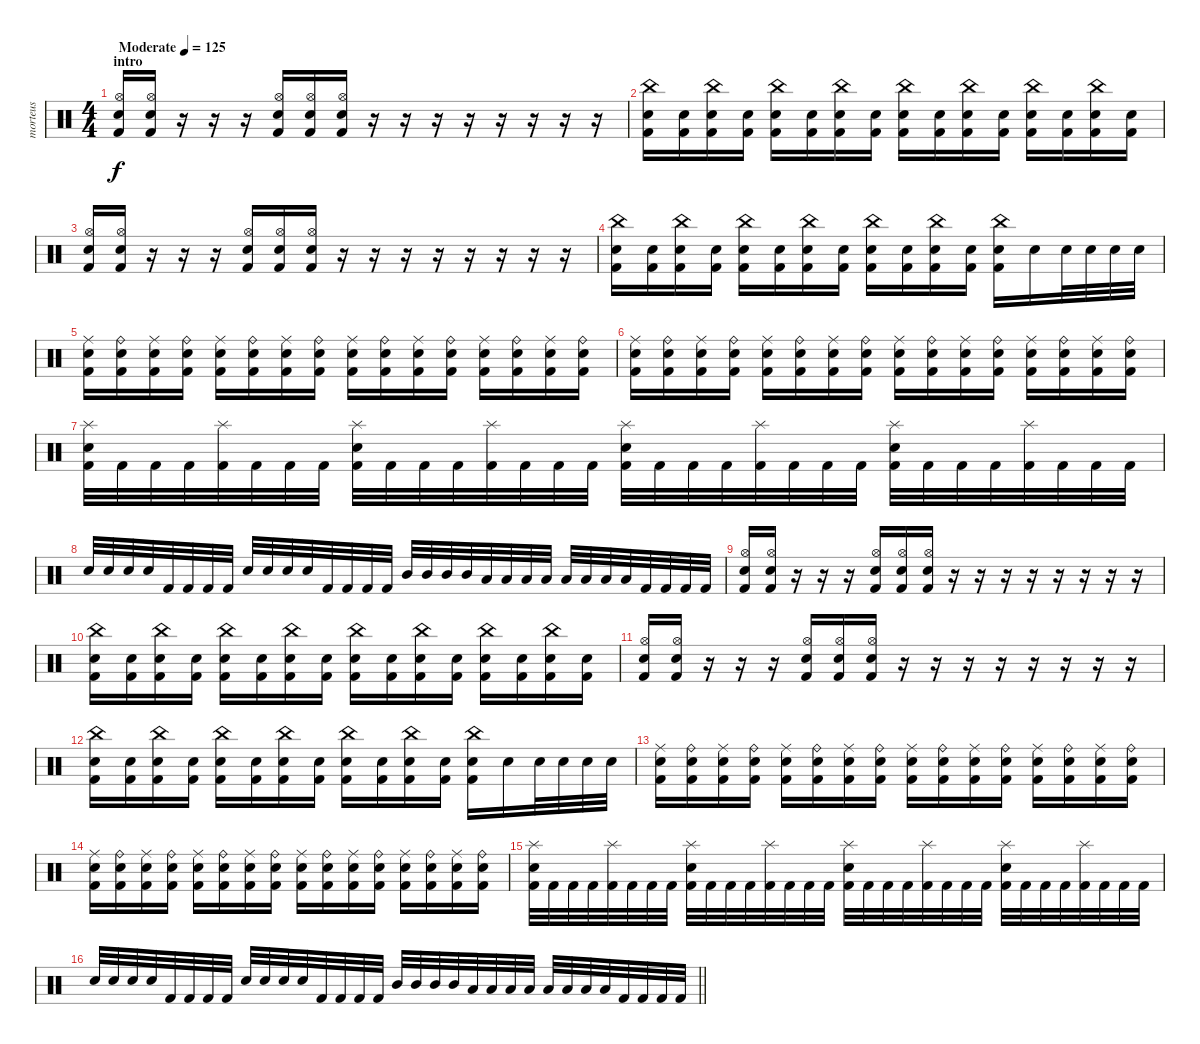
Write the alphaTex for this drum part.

\track ("morteus" "morteus") {instrument percussion}
\staff {score}
\articulation defaults
\ts (4 4)
\section ("" "intro")
\tempo (125 "Moderate")
\clef neutral
\ks c
("Kick (hit) 2" "Hi-Hat (open)" "Electric Snare (hit)").16{dy f} ("Kick (hit) 2" "Hi-Hat (open)" "Electric Snare (hit)").16 r.16 r.16 r.16 ("Kick (hit) 2" "Hi-Hat (open)" "Electric Snare (hit)").16 ("Kick (hit) 2" "Hi-Hat (open)" "Electric Snare (hit)").16 ("Kick (hit) 2" "Hi-Hat (open)" "Electric Snare (hit)").16 r.16 r.16 r.16 r.16 r.16 r.16 r.16 r.16 |
("Kick (hit) 2" "Electric Snare (hit)" "China (hit)").16 ("Kick (hit) 2" "Electric Snare (hit)").16 ("Kick (hit) 2" "Electric Snare (hit)" "China (hit)").16 ("Kick (hit) 2" "Electric Snare (hit)").16 ("Kick (hit) 2" "Electric Snare (hit)" "China (hit)").16 ("Kick (hit) 2" "Electric Snare (hit)").16 ("Kick (hit) 2" "Electric Snare (hit)" "China (hit)").16 ("Kick (hit) 2" "Electric Snare (hit)").16 ("Kick (hit) 2" "Electric Snare (hit)" "China (hit)").16 ("Kick (hit) 2" "Electric Snare (hit)").16 ("Kick (hit) 2" "Electric Snare (hit)" "China (hit)").16 ("Kick (hit) 2" "Electric Snare (hit)").16 ("Kick (hit) 2" "Electric Snare (hit)" "China (hit)").16 ("Kick (hit) 2" "Electric Snare (hit)").16 ("Kick (hit) 2" "Electric Snare (hit)" "China (hit)").16 ("Kick (hit) 2" "Electric Snare (hit)").16 |
("Kick (hit) 2" "Hi-Hat (open)" "Electric Snare (hit)").16 ("Kick (hit) 2" "Hi-Hat (open)" "Electric Snare (hit)").16 r.16 r.16 r.16 ("Kick (hit) 2" "Hi-Hat (open)" "Electric Snare (hit)").16 ("Kick (hit) 2" "Hi-Hat (open)" "Electric Snare (hit)").16 ("Kick (hit) 2" "Hi-Hat (open)" "Electric Snare (hit)").16 r.16 r.16 r.16 r.16 r.16 r.16 r.16 r.16 |
("Kick (hit) 2" "Electric Snare (hit)" "China (hit)").16 ("Kick (hit) 2" "Electric Snare (hit)").16 ("Kick (hit) 2" "Electric Snare (hit)" "China (hit)").16 ("Kick (hit) 2" "Electric Snare (hit)").16 ("Kick (hit) 2" "Electric Snare (hit)" "China (hit)").16 ("Kick (hit) 2" "Electric Snare (hit)").16 ("Kick (hit) 2" "Electric Snare (hit)" "China (hit)").16 ("Kick (hit) 2" "Electric Snare (hit)").16 ("Kick (hit) 2" "Electric Snare (hit)" "China (hit)").16 ("Kick (hit) 2" "Electric Snare (hit)").16 ("Kick (hit) 2" "Electric Snare (hit)" "China (hit)").16 ("Kick (hit) 2" "Electric Snare (hit)").16 ("Kick (hit) 2" "Electric Snare (hit)" "China (hit)").16 "Electric Snare (hit)".16 "Electric Snare (hit)".32 "Electric Snare (hit)".32 "Electric Snare (hit)".32 "Electric Snare (hit)".32 |
("Kick (hit) 2" "Electric Snare (hit)" "Ride (middle)").16 ("Kick (hit) 2" "Electric Snare (hit)" "Ride (bell)").16 ("Kick (hit) 2" "Electric Snare (hit)" "Ride (middle)").16 ("Kick (hit) 2" "Electric Snare (hit)" "Ride (bell)").16 ("Kick (hit) 2" "Electric Snare (hit)" "Ride (middle)").16 ("Kick (hit) 2" "Electric Snare (hit)" "Ride (bell)").16 ("Kick (hit) 2" "Electric Snare (hit)" "Ride (middle)").16 ("Kick (hit) 2" "Electric Snare (hit)" "Ride (bell)").16 ("Kick (hit) 2" "Electric Snare (hit)" "Ride (middle)").16 ("Kick (hit) 2" "Electric Snare (hit)" "Ride (bell)").16 ("Kick (hit) 2" "Electric Snare (hit)" "Ride (middle)").16 ("Kick (hit) 2" "Electric Snare (hit)" "Ride (bell)").16 ("Kick (hit) 2" "Electric Snare (hit)" "Ride (middle)").16 ("Kick (hit) 2" "Electric Snare (hit)" "Ride (bell)").16 ("Kick (hit) 2" "Electric Snare (hit)" "Ride (middle)").16 ("Kick (hit) 2" "Electric Snare (hit)" "Ride (bell)").16 |
("Kick (hit) 2" "Electric Snare (hit)" "Ride (middle)").16 ("Kick (hit) 2" "Electric Snare (hit)" "Ride (bell)").16 ("Kick (hit) 2" "Electric Snare (hit)" "Ride (middle)").16 ("Kick (hit) 2" "Electric Snare (hit)" "Ride (bell)").16 ("Kick (hit) 2" "Electric Snare (hit)" "Ride (middle)").16 ("Kick (hit) 2" "Electric Snare (hit)" "Ride (bell)").16 ("Kick (hit) 2" "Electric Snare (hit)" "Ride (middle)").16 ("Kick (hit) 2" "Electric Snare (hit)" "Ride (bell)").16 ("Kick (hit) 2" "Electric Snare (hit)" "Ride (middle)").16 ("Kick (hit) 2" "Electric Snare (hit)" "Ride (bell)").16 ("Kick (hit) 2" "Electric Snare (hit)" "Ride (middle)").16 ("Kick (hit) 2" "Electric Snare (hit)" "Ride (bell)").16 ("Kick (hit) 2" "Electric Snare (hit)" "Ride (middle)").16 ("Kick (hit) 2" "Electric Snare (hit)" "Ride (bell)").16 ("Kick (hit) 2" "Electric Snare (hit)" "Ride (middle)").16 ("Kick (hit) 2" "Electric Snare (hit)" "Ride (bell)").16 |
("Kick (hit) 2" "Electric Snare (hit)" "Splash (hit)").32 "Kick (hit) 2".32 "Kick (hit) 2".32 "Kick (hit) 2".32 ("Kick (hit) 2" "Splash (hit)").32 "Kick (hit) 2".32 "Kick (hit) 2".32 "Kick (hit) 2".32 ("Kick (hit) 2" "Electric Snare (hit)" "Splash (hit)").32 "Kick (hit) 2".32 "Kick (hit) 2".32 "Kick (hit) 2".32 ("Kick (hit) 2" "Splash (hit)").32 "Kick (hit) 2".32 "Kick (hit) 2".32 "Kick (hit) 2".32 ("Kick (hit) 2" "Electric Snare (hit)" "Splash (hit)").32 "Kick (hit) 2".32 "Kick (hit) 2".32 "Kick (hit) 2".32 ("Kick (hit) 2" "Splash (hit)").32 "Kick (hit) 2".32 "Kick (hit) 2".32 "Kick (hit) 2".32 ("Kick (hit) 2" "Electric Snare (hit)" "Splash (hit)").32 "Kick (hit) 2".32 "Kick (hit) 2".32 "Kick (hit) 2".32 ("Kick (hit) 2" "Splash (hit)").32 "Kick (hit) 2".32 "Kick (hit) 2".32 "Kick (hit) 2".32 |
"Electric Snare (hit)".32 "Electric Snare (hit)".32 "Electric Snare (hit)".32 "Electric Snare (hit)".32 "Kick (hit) 2".32 "Kick (hit) 2".32 "Kick (hit) 2".32 "Kick (hit) 2".32 "Electric Snare (hit)".32 "Electric Snare (hit)".32 "Electric Snare (hit)".32 "Electric Snare (hit)".32 "Kick (hit) 2".32 "Kick (hit) 2".32 "Kick (hit) 2".32 "Kick (hit) 2".32 "Mid Tom (hit)".32 "Mid Tom (hit)".32 "Mid Tom (hit)".32 "Mid Tom (hit)".32 "Low Tom (hit)".32 "Low Tom (hit)".32 "Low Tom (hit)".32 "Low Tom (hit)".32 "Low Floor Tom (hit)".32 "Low Floor Tom (hit)".32 "Low Floor Tom (hit)".32 "Low Floor Tom (hit)".32 "Kick (hit) 2".32 "Kick (hit) 2".32 "Kick (hit) 2".32 "Kick (hit) 2".32 |
("Kick (hit) 2" "Hi-Hat (open)" "Electric Snare (hit)").16 ("Kick (hit) 2" "Hi-Hat (open)" "Electric Snare (hit)").16 r.16 r.16 r.16 ("Kick (hit) 2" "Hi-Hat (open)" "Electric Snare (hit)").16 ("Kick (hit) 2" "Hi-Hat (open)" "Electric Snare (hit)").16 ("Kick (hit) 2" "Hi-Hat (open)" "Electric Snare (hit)").16 r.16 r.16 r.16 r.16 r.16 r.16 r.16 r.16 |
("Kick (hit) 2" "Electric Snare (hit)" "China (hit)").16 ("Kick (hit) 2" "Electric Snare (hit)").16 ("Kick (hit) 2" "Electric Snare (hit)" "China (hit)").16 ("Kick (hit) 2" "Electric Snare (hit)").16 ("Kick (hit) 2" "Electric Snare (hit)" "China (hit)").16 ("Kick (hit) 2" "Electric Snare (hit)").16 ("Kick (hit) 2" "Electric Snare (hit)" "China (hit)").16 ("Kick (hit) 2" "Electric Snare (hit)").16 ("Kick (hit) 2" "Electric Snare (hit)" "China (hit)").16 ("Kick (hit) 2" "Electric Snare (hit)").16 ("Kick (hit) 2" "Electric Snare (hit)" "China (hit)").16 ("Kick (hit) 2" "Electric Snare (hit)").16 ("Kick (hit) 2" "Electric Snare (hit)" "China (hit)").16 ("Kick (hit) 2" "Electric Snare (hit)").16 ("Kick (hit) 2" "Electric Snare (hit)" "China (hit)").16 ("Kick (hit) 2" "Electric Snare (hit)").16 |
("Kick (hit) 2" "Hi-Hat (open)" "Electric Snare (hit)").16 ("Kick (hit) 2" "Hi-Hat (open)" "Electric Snare (hit)").16 r.16 r.16 r.16 ("Kick (hit) 2" "Hi-Hat (open)" "Electric Snare (hit)").16 ("Kick (hit) 2" "Hi-Hat (open)" "Electric Snare (hit)").16 ("Kick (hit) 2" "Hi-Hat (open)" "Electric Snare (hit)").16 r.16 r.16 r.16 r.16 r.16 r.16 r.16 r.16 |
("Kick (hit) 2" "Electric Snare (hit)" "China (hit)").16 ("Kick (hit) 2" "Electric Snare (hit)").16 ("Kick (hit) 2" "Electric Snare (hit)" "China (hit)").16 ("Kick (hit) 2" "Electric Snare (hit)").16 ("Kick (hit) 2" "Electric Snare (hit)" "China (hit)").16 ("Kick (hit) 2" "Electric Snare (hit)").16 ("Kick (hit) 2" "Electric Snare (hit)" "China (hit)").16 ("Kick (hit) 2" "Electric Snare (hit)").16 ("Kick (hit) 2" "Electric Snare (hit)" "China (hit)").16 ("Kick (hit) 2" "Electric Snare (hit)").16 ("Kick (hit) 2" "Electric Snare (hit)" "China (hit)").16 ("Kick (hit) 2" "Electric Snare (hit)").16 ("Kick (hit) 2" "Electric Snare (hit)" "China (hit)").16 "Electric Snare (hit)".16 "Electric Snare (hit)".32 "Electric Snare (hit)".32 "Electric Snare (hit)".32 "Electric Snare (hit)".32 |
("Kick (hit) 2" "Electric Snare (hit)" "Ride (middle)").16 ("Kick (hit) 2" "Electric Snare (hit)" "Ride (bell)").16 ("Kick (hit) 2" "Electric Snare (hit)" "Ride (middle)").16 ("Kick (hit) 2" "Electric Snare (hit)" "Ride (bell)").16 ("Kick (hit) 2" "Electric Snare (hit)" "Ride (middle)").16 ("Kick (hit) 2" "Electric Snare (hit)" "Ride (bell)").16 ("Kick (hit) 2" "Electric Snare (hit)" "Ride (middle)").16 ("Kick (hit) 2" "Electric Snare (hit)" "Ride (bell)").16 ("Kick (hit) 2" "Electric Snare (hit)" "Ride (middle)").16 ("Kick (hit) 2" "Electric Snare (hit)" "Ride (bell)").16 ("Kick (hit) 2" "Electric Snare (hit)" "Ride (middle)").16 ("Kick (hit) 2" "Electric Snare (hit)" "Ride (bell)").16 ("Kick (hit) 2" "Electric Snare (hit)" "Ride (middle)").16 ("Kick (hit) 2" "Electric Snare (hit)" "Ride (bell)").16 ("Kick (hit) 2" "Electric Snare (hit)" "Ride (middle)").16 ("Kick (hit) 2" "Electric Snare (hit)" "Ride (bell)").16 |
("Kick (hit) 2" "Electric Snare (hit)" "Ride (middle)").16 ("Kick (hit) 2" "Electric Snare (hit)" "Ride (bell)").16 ("Kick (hit) 2" "Electric Snare (hit)" "Ride (middle)").16 ("Kick (hit) 2" "Electric Snare (hit)" "Ride (bell)").16 ("Kick (hit) 2" "Electric Snare (hit)" "Ride (middle)").16 ("Kick (hit) 2" "Electric Snare (hit)" "Ride (bell)").16 ("Kick (hit) 2" "Electric Snare (hit)" "Ride (middle)").16 ("Kick (hit) 2" "Electric Snare (hit)" "Ride (bell)").16 ("Kick (hit) 2" "Electric Snare (hit)" "Ride (middle)").16 ("Kick (hit) 2" "Electric Snare (hit)" "Ride (bell)").16 ("Kick (hit) 2" "Electric Snare (hit)" "Ride (middle)").16 ("Kick (hit) 2" "Electric Snare (hit)" "Ride (bell)").16 ("Kick (hit) 2" "Electric Snare (hit)" "Ride (middle)").16 ("Kick (hit) 2" "Electric Snare (hit)" "Ride (bell)").16 ("Kick (hit) 2" "Electric Snare (hit)" "Ride (middle)").16 ("Kick (hit) 2" "Electric Snare (hit)" "Ride (bell)").16 |
("Kick (hit) 2" "Electric Snare (hit)" "Splash (hit)").32 "Kick (hit) 2".32 "Kick (hit) 2".32 "Kick (hit) 2".32 ("Kick (hit) 2" "Splash (hit)").32 "Kick (hit) 2".32 "Kick (hit) 2".32 "Kick (hit) 2".32 ("Kick (hit) 2" "Electric Snare (hit)" "Splash (hit)").32 "Kick (hit) 2".32 "Kick (hit) 2".32 "Kick (hit) 2".32 ("Kick (hit) 2" "Splash (hit)").32 "Kick (hit) 2".32 "Kick (hit) 2".32 "Kick (hit) 2".32 ("Kick (hit) 2" "Electric Snare (hit)" "Splash (hit)").32 "Kick (hit) 2".32 "Kick (hit) 2".32 "Kick (hit) 2".32 ("Kick (hit) 2" "Splash (hit)").32 "Kick (hit) 2".32 "Kick (hit) 2".32 "Kick (hit) 2".32 ("Kick (hit) 2" "Electric Snare (hit)" "Splash (hit)").32 "Kick (hit) 2".32 "Kick (hit) 2".32 "Kick (hit) 2".32 ("Kick (hit) 2" "Splash (hit)").32 "Kick (hit) 2".32 "Kick (hit) 2".32 "Kick (hit) 2".32 |
\barLineRight lightlight "Electric Snare (hit)".32 "Electric Snare (hit)".32 "Electric Snare (hit)".32 "Electric Snare (hit)".32 "Kick (hit) 2".32 "Kick (hit) 2".32 "Kick (hit) 2".32 "Kick (hit) 2".32 "Electric Snare (hit)".32 "Electric Snare (hit)".32 "Electric Snare (hit)".32 "Electric Snare (hit)".32 "Kick (hit) 2".32 "Kick (hit) 2".32 "Kick (hit) 2".32 "Kick (hit) 2".32 "Mid Tom (hit)".32 "Mid Tom (hit)".32 "Mid Tom (hit)".32 "Mid Tom (hit)".32 "Low Tom (hit)".32 "Low Tom (hit)".32 "Low Tom (hit)".32 "Low Tom (hit)".32 "Low Floor Tom (hit)".32 "Low Floor Tom (hit)".32 "Low Floor Tom (hit)".32 "Low Floor Tom (hit)".32 "Kick (hit) 2".32 "Kick (hit) 2".32 "Kick (hit) 2".32 "Kick (hit) 2".32
